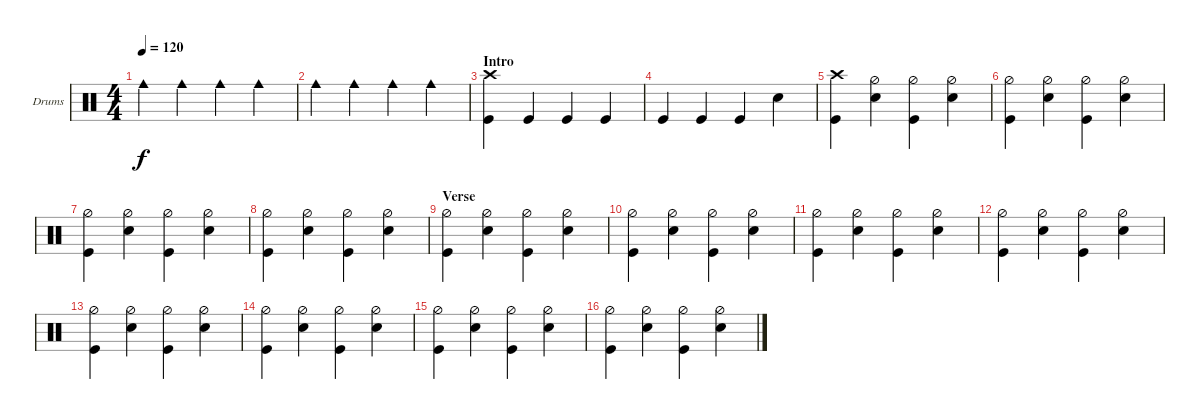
\defaultSystemsLayout 4
\bracketExtendMode groupsimilarinstruments
\firstSystemTrackNameOrientation horizontal
\otherSystemsTrackNameOrientation horizontal
\track ("Drumkit" "Drums") {instrument percussion}
\staff {score}
\articulation defaults
\ts (4 4)
\tempo 120
\clef neutral
\ks c "Cowbell medium (hit)".4{dy f} "Cowbell medium (hit)".4 "Cowbell medium (hit)".4 "Cowbell medium (hit)".4
|
"Cowbell medium (hit)".4 "Cowbell medium (hit)".4 "Cowbell medium (hit)".4 "Cowbell medium (hit)".4 |
\section ("" "Intro")
("Kick (hit)" "Crash high (hit)").4 "Kick (hit)".4 "Kick (hit)".4 "Kick (hit)".4 |
"Kick (hit)".4 "Kick (hit)".4 "Kick (hit)".4 "Snare (hit) 2".4 |
("Kick (hit)" "Crash high (hit)").4 ("Snare (hit) 2" "Hi-Hat (half)").4 ("Kick (hit)" "Hi-Hat (half)").4 ("Snare (hit) 2" "Hi-Hat (half)").4 |
("Kick (hit)" "Hi-Hat (half)").4 ("Snare (hit) 2" "Hi-Hat (half)").4 ("Kick (hit)" "Hi-Hat (half)").4 ("Snare (hit) 2" "Hi-Hat (half)").4 |
("Kick (hit)" "Hi-Hat (half)").4 ("Snare (hit) 2" "Hi-Hat (half)").4 ("Kick (hit)" "Hi-Hat (half)").4 ("Snare (hit) 2" "Hi-Hat (half)").4 |
("Kick (hit)" "Hi-Hat (half)").4 ("Snare (hit) 2" "Hi-Hat (half)").4 ("Kick (hit)" "Hi-Hat (half)").4 ("Snare (hit) 2" "Hi-Hat (half)").4 |
\section ("" "Verse")
("Kick (hit)" "Hi-Hat (half)").4 ("Snare (hit) 2" "Hi-Hat (half)").4 ("Kick (hit)" "Hi-Hat (half)").4 ("Snare (hit) 2" "Hi-Hat (half)").4 |
("Kick (hit)" "Hi-Hat (half)").4 ("Snare (hit) 2" "Hi-Hat (half)").4 ("Kick (hit)" "Hi-Hat (half)").4 ("Snare (hit) 2" "Hi-Hat (half)").4 |
("Kick (hit)" "Hi-Hat (half)").4 ("Snare (hit) 2" "Hi-Hat (half)").4 ("Kick (hit)" "Hi-Hat (half)").4 ("Snare (hit) 2" "Hi-Hat (half)").4 |
("Kick (hit)" "Hi-Hat (half)").4 ("Snare (hit) 2" "Hi-Hat (half)").4 ("Kick (hit)" "Hi-Hat (half)").4 ("Snare (hit) 2" "Hi-Hat (half)").4 |
("Kick (hit)" "Hi-Hat (half)").4 ("Snare (hit) 2" "Hi-Hat (half)").4 ("Kick (hit)" "Hi-Hat (half)").4 ("Snare (hit) 2" "Hi-Hat (half)").4 |
("Kick (hit)" "Hi-Hat (half)").4 ("Snare (hit) 2" "Hi-Hat (half)").4 ("Kick (hit)" "Hi-Hat (half)").4 ("Snare (hit) 2" "Hi-Hat (half)").4 |
("Kick (hit)" "Hi-Hat (half)").4 ("Snare (hit) 2" "Hi-Hat (half)").4 ("Kick (hit)" "Hi-Hat (half)").4 ("Snare (hit) 2" "Hi-Hat (half)").4 |
("Kick (hit)" "Hi-Hat (half)").4 ("Snare (hit) 2" "Hi-Hat (half)").4 ("Kick (hit)" "Hi-Hat (half)").4 ("Snare (hit) 2" "Hi-Hat (half)").4
